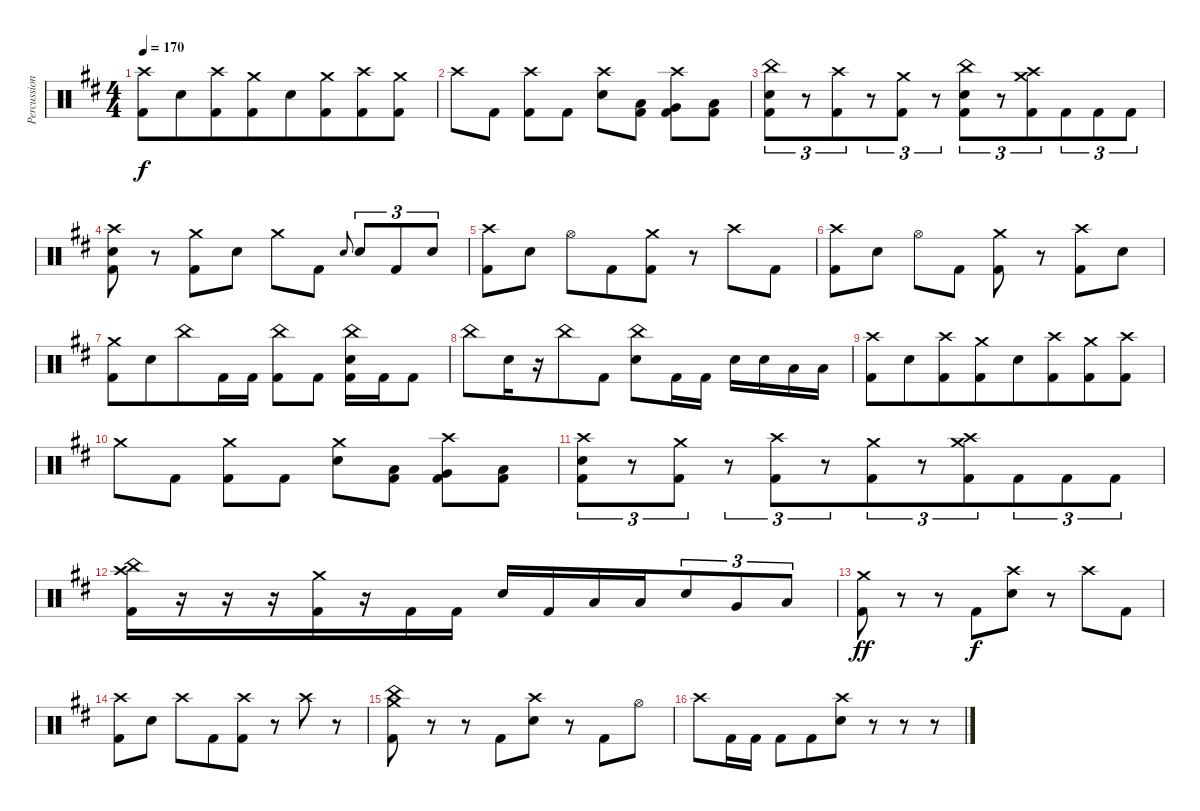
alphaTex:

\track ("Percussion" "Percussion") {instrument percussion}
\staff {score}
\articulation defaults
\ts (4 4)
\tempo 170
\clef neutral
\ks bminor
("Crash high (hit)" "Kick (hit) 2").8{dy f} "Electric Snare (hit)".8{beam merge} ("Crash high (hit)" "Kick (hit) 2").8{beam merge} ("Crash medium (hit)" "Kick (hit) 2").8{beam merge} "Electric Snare (hit)".8 ("Crash medium (hit)" "Kick (hit) 2").8{beam merge} ("Crash high (hit)" "Kick (hit) 2").8{beam merge} ("Crash medium (hit)" "Kick (hit) 2").8 |
"Crash high (hit)".8 "Kick (hit) 2".8 ("Crash high (hit)" "Kick (hit) 2").8 "Kick (hit) 2".8 ("Crash high (hit)" "Electric Snare (hit)").8 ("Low Tom (hit)" "Kick (hit) 2").8 ("Crash high (hit)" "Very Low Tom (hit)" "Kick (hit) 2").8{beam merge} ("Low Floor Tom (hit)" "Kick (hit) 2").8 |
("China (hit)" "Electric Snare (hit)" "Kick (hit) 2").8{tu (3 2) beam merge} r.8{tu (3 2) beam merge} ("Crash high (hit)" "Kick (hit) 2").8{tu (3 2) beam merge} r.8{tu (3 2)} ("Crash medium (hit)" "Kick (hit) 2").8{tu (3 2)} r.8{tu (3 2) beam merge} ("China (hit)" "Electric Snare (hit)" "Kick (hit) 2").8{tu (3 2)} r.8{tu (3 2)} ("Crash high (hit)" "Crash medium (hit)" "Kick (hit) 2").8{tu (3 2) beam merge} "Kick (hit) 2".8{tu (3 2)} "Kick (hit) 2".8{tu (3 2)} "Kick (hit) 2".8{tu (3 2)} |
("Electric Snare (hit)" "Crash high (hit)" "Kick (hit) 2").8 r.8 ("Kick (hit) 2" "Crash medium (hit)").8{beam merge} "Electric Snare (hit)".8 "Crash medium (hit)".8 "Kick (hit) 2".8 "Electric Snare (hit)".8{gr onbeat} "Electric Snare (hit)".8{tu (3 2)} "Kick (hit) 2".8{tu (3 2)} "Electric Snare (hit)".8{tu (3 2)} |
("Crash high (hit)" "Kick (hit) 2").8 "Electric Snare (hit)".8 "Hi-Hat (open)".8 "Kick (hit) 2".8{beam merge} ("Crash medium (hit)" "Kick (hit) 2").8 r.8{beam merge} "Crash high (hit)".8{beam merge} "Kick (hit) 2".8 |
("Crash high (hit)" "Kick (hit) 2").8{beam merge} "Electric Snare (hit)".8 "Hi-Hat (open)".8 "Kick (hit) 2".8 ("Crash medium (hit)" "Kick (hit) 2").8 r.8{beam merge} ("Crash high (hit)" "Kick (hit) 2").8 "Electric Snare (hit)".8 |
("Crash medium (hit)" "Kick (hit) 2").8 "Electric Snare (hit)".8{beam merge} "China (hit)".8{beam merge} "Kick (hit) 2".16{beam merge} "Kick (hit) 2".16 ("China (hit)" "Kick (hit) 2").8{beam merge} "Kick (hit) 2".8 ("China (hit)" "Electric Snare (hit)" "Kick (hit) 2").16 "Kick (hit) 2".16{beam merge} "Kick (hit) 2".8 |
"China (hit)".8 "Electric Snare (hit)".16{beam merge} r.16 "China (hit)".8 "Kick (hit) 2".8 ("China (hit)" "Electric Snare (hit)").8 "Kick (hit) 2".16{beam merge} "Kick (hit) 2".16 "Electric Snare (hit)".16 "Electric Snare (hit)".16{beam merge} "Low Tom (hit)".16{beam merge} "Low Tom (hit)".16 |
("Crash high (hit)" "Kick (hit) 2").8 "Electric Snare (hit)".8{beam merge} ("Crash high (hit)" "Kick (hit) 2").8{beam merge} ("Crash medium (hit)" "Kick (hit) 2").8{beam merge} "Electric Snare (hit)".8 ("Crash high (hit)" "Kick (hit) 2").8{beam merge} ("Crash medium (hit)" "Kick (hit) 2").8{beam merge} ("Crash high (hit)" "Kick (hit) 2").8 |
"Crash medium (hit)".8 "Kick (hit) 2".8 ("Crash medium (hit)" "Kick (hit) 2").8 "Kick (hit) 2".8 ("Crash medium (hit)" "Electric Snare (hit)").8 ("Low Tom (hit)" "Kick (hit) 2").8 ("Crash high (hit)" "Very Low Tom (hit)" "Kick (hit) 2").8{beam merge} ("Low Floor Tom (hit)" "Kick (hit) 2").8 |
("Crash high (hit)" "Electric Snare (hit)" "Kick (hit) 2").8{tu (3 2)} r.8{tu (3 2)} ("Crash medium (hit)" "Kick (hit) 2").8{tu (3 2)} r.8{tu (3 2) beam merge} ("Crash high (hit)" "Kick (hit) 2").8{tu (3 2) beam merge} r.8{tu (3 2) beam merge} ("Crash medium (hit)" "Kick (hit) 2").8{tu (3 2)} r.8{tu (3 2) beam merge} ("Crash medium (hit)" "Crash high (hit)" "Kick (hit) 2").8{tu (3 2) beam merge} "Kick (hit) 2".8{tu (3 2)} "Kick (hit) 2".8{tu (3 2) beam merge} "Kick (hit) 2".8{tu (3 2)} |
("Crash high (hit)" "Kick (hit) 2" "China (hit)").16{beam merge} r.16 r.16 r.16{beam merge} ("Crash medium (hit)" "Kick (hit) 2").16 r.16{beam merge} "Kick (hit) 2".16{beam merge} "Kick (hit) 2".16 "Electric Snare (hit)".16 "Kick (hit) 2".16 "Low Tom (hit)".16{beam merge} "Low Tom (hit)".16{beam merge} "Electric Snare (hit)".8{tu (3 2)} "Very Low Tom (hit)".8{tu (3 2)} "Low Floor Tom (hit)".8{tu (3 2)} |
("Crash medium (hit)" "Kick (hit) 2").8{dy ff} r.8 r.8 "Kick (hit) 2".8{dy f beam merge} ("Crash high (hit)" "Electric Snare (hit)").8 r.8{beam merge} "Crash high (hit)".8{beam merge} "Kick (hit) 2".8 |
("Crash high (hit)" "Kick (hit) 2").8 "Electric Snare (hit)".8 "Crash high (hit)".8 "Kick (hit) 2".8{beam merge} ("Crash high (hit)" "Kick (hit) 2").8 r.8{beam merge} "Crash high (hit)".8{beam merge} r.8 |
("China (hit)" "Crash medium (hit)" "Kick (hit) 2").8 r.8 r.8 "Kick (hit) 2".8{beam merge} ("Crash high (hit)" "Electric Snare (hit)").8 r.8{beam merge} "Kick (hit) 2".8{beam merge} "Hi-Hat (open)".8 |
"Crash high (hit)".8 "Kick (hit) 2".16 "Kick (hit) 2".16 "Kick (hit) 2".8 "Kick (hit) 2".8{beam merge} ("Crash high (hit)" "Electric Snare (hit)").8 r.8{beam merge} r.8{beam merge} r.8
